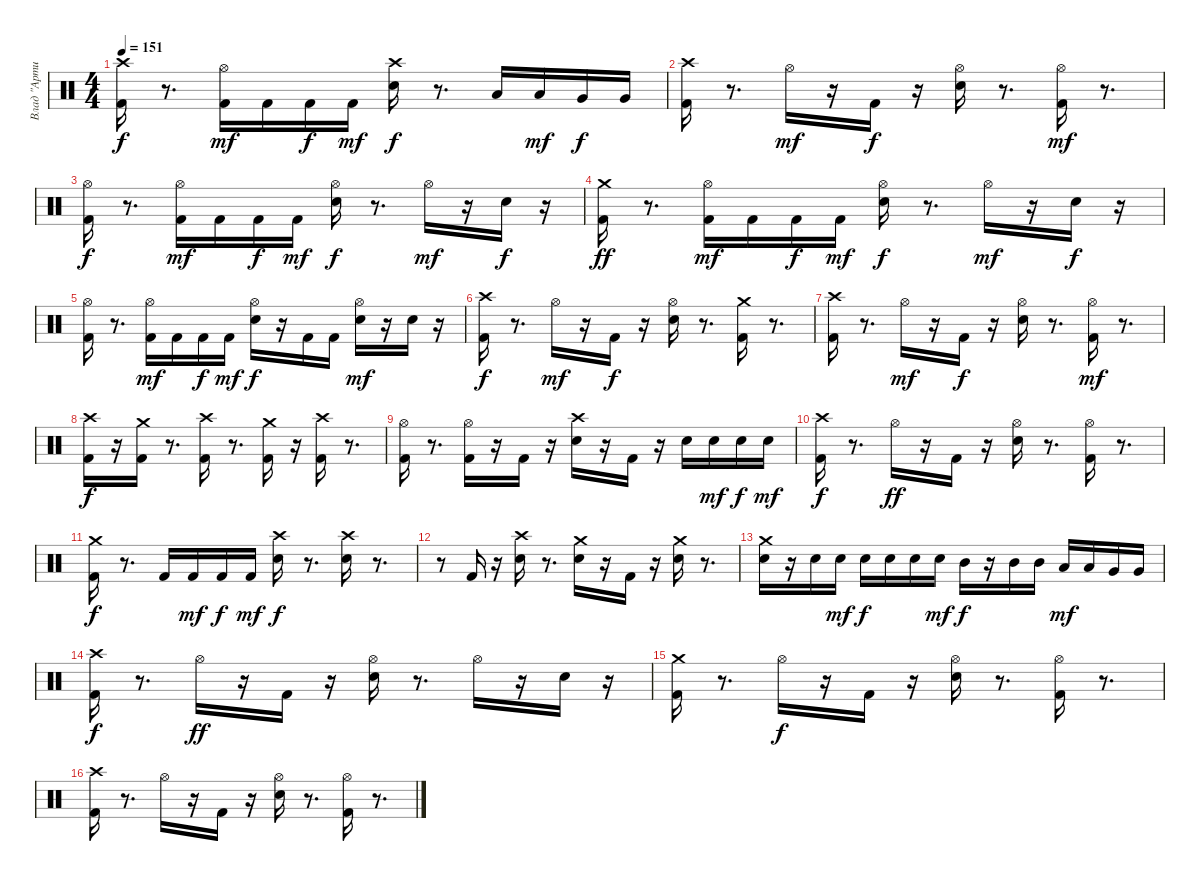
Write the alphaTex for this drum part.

\track ("Влад \"Артист\"" "Влад \"Арти") {instrument percussion}
\staff {score}
\articulation defaults
\ts (4 4)
\tempo 151
\clef neutral
\ks c
("Crash high (hit)" "Kick (hit) 2").16{dy f} r.8{d} ("Kick (hit) 2" "Hi-Hat (open)").16{dy mf} "Kick (hit) 2".16 "Kick (hit) 2".16{dy f} "Kick (hit) 2".16{dy mf} ("Snare (hit) 2" "Crash high (hit)").16{dy f} r.8{d} "Low Tom (hit)".16 "Low Tom (hit)".16{dy mf} "Very Low Tom (hit)".16{dy f} "Very Low Tom (hit)".16 |
("Kick (hit) 2" "Crash high (hit)").16 r.8{d} "Hi-Hat (open)".16{dy mf} r.16 "Kick (hit) 2".16{dy f} r.16 ("Snare (hit) 2" "Hi-Hat (open)").16 r.8{d} ("Hi-Hat (open)" "Kick (hit) 2").16{dy mf} r.8{d} |
("Kick (hit) 2" "Hi-Hat (open)").16{dy f} r.8{d} ("Hi-Hat (open)" "Kick (hit) 2").16{dy mf} "Kick (hit) 2".16 "Kick (hit) 2".16{dy f} "Kick (hit) 2".16{dy mf} ("Hi-Hat (open)" "Snare (hit) 2").16{dy f} r.8{d} "Hi-Hat (open)".16{dy mf} r.16 "Snare (hit) 2".16{dy f} r.16 |
("Crash medium (hit)" "Kick (hit) 2").16{dy ff} r.8{d} ("Hi-Hat (open)" "Kick (hit) 2").16{dy mf} "Kick (hit) 2".16 "Kick (hit) 2".16{dy f} "Kick (hit) 2".16{dy mf} ("Hi-Hat (open)" "Snare (hit) 2").16{dy f} r.8{d} "Hi-Hat (open)".16{dy mf} r.16 "Snare (hit) 2".16{dy f} r.16 |
("Kick (hit) 2" "Hi-Hat (open)").16 r.8{d} ("Hi-Hat (open)" "Kick (hit) 2").16{dy mf} "Kick (hit) 2".16 "Kick (hit) 2".16{dy f} "Kick (hit) 2".16{dy mf} ("Hi-Hat (open)" "Snare (hit) 2").16{dy f} r.16 "Kick (hit) 2".16 "Kick (hit) 2".16 ("Hi-Hat (open)" "Snare (hit) 2").16{dy mf} r.16 "Snare (hit) 2".16 r.16 |
("Kick (hit) 2" "Crash high (hit)").16{dy f} r.8{d} "Hi-Hat (open)".16{dy mf} r.16 "Kick (hit) 2".16{dy f} r.16 ("Snare (hit) 2" "Hi-Hat (open)").16 r.8{d} ("Crash medium (hit)" "Kick (hit) 2").16 r.8{d} |
("Kick (hit) 2" "Crash high (hit)").16 r.8{d} "Hi-Hat (open)".16{dy mf} r.16 "Kick (hit) 2".16{dy f} r.16 ("Snare (hit) 2" "Hi-Hat (open)").16 r.8{d} ("Hi-Hat (open)" "Kick (hit) 2").16{dy mf} r.8{d} |
("Crash high (hit)" "Kick (hit) 2").16{dy f} r.16 ("Crash medium (hit)" "Kick (hit) 2").16 r.8{d} ("Crash high (hit)" "Kick (hit) 2").16 r.8{d} ("Crash medium (hit)" "Kick (hit) 2").16 r.16 ("Crash high (hit)" "Kick (hit) 2").16 r.8{d} |
("Hi-Hat (open)" "Kick (hit) 2").16 r.8{d} ("Kick (hit) 2" "Hi-Hat (open)").16 r.16 "Kick (hit) 2".16 r.16 ("Snare (hit) 2" "Crash high (hit)").16 r.16 "Kick (hit) 2".16 r.16 "Snare (hit) 2".16 "Snare (hit) 2".16{dy mf} "Snare (hit) 2".16{dy f} "Snare (hit) 2".16{dy mf} |
("Kick (hit) 2" "Crash high (hit)").16{dy f} r.8{d} "Hi-Hat (open)".16{dy ff} r.16 "Kick (hit) 2".16 r.16 ("Hi-Hat (open)" "Snare (hit) 2").16 r.8{d} ("Hi-Hat (open)" "Kick (hit) 2").16 r.8{d} |
("Kick (hit) 2" "Crash medium (hit)").16{dy f} r.8{d} "Kick (hit) 2".16 "Kick (hit) 2".16{dy mf} "Kick (hit) 2".16{dy f} "Kick (hit) 2".16{dy mf} ("Crash high (hit)" "Snare (hit) 2").16{dy f} r.8{d} ("Crash high (hit)" "Snare (hit) 2").16 r.8{d} |
r.8 "Kick (hit) 2".16 r.16 ("Crash high (hit)" "Snare (hit) 2").16 r.8{d} ("Snare (hit) 2" "Crash medium (hit)").16 r.16 "Kick (hit) 2".16 r.16 ("Snare (hit) 2" "Crash medium (hit)").16 r.8{d} |
("Crash medium (hit)" "Snare (hit) 2").16 r.16 "Snare (hit) 2".16 "Snare (hit) 2".16{dy mf} "Snare (hit) 2".16{dy f} "Snare (hit) 2".16 "Snare (hit) 2".16 "Snare (hit) 2".16{dy mf} "Mid Tom (hit)".16{dy f} r.16 "Mid Tom (hit)".16 "Mid Tom (hit)".16 "Low Tom (hit)".16{dy mf} "Low Tom (hit)".16 "Very Low Tom (hit)".16 "Very Low Tom (hit)".16 |
("Kick (hit) 2" "Crash high (hit)").16{dy f} r.8{d} "Hi-Hat (open)".16{dy ff} r.16 "Kick (hit) 2".16 r.16 ("Snare (hit) 2" "Hi-Hat (open)").16 r.8{d} "Hi-Hat (open)".16 r.16 "Snare (hit) 2".16 r.16 |
("Crash medium (hit)" "Kick (hit) 2").16 r.8{d} "Hi-Hat (open)".16{dy f} r.16 "Kick (hit) 2".16 r.16 ("Hi-Hat (open)" "Snare (hit) 2").16 r.8{d} ("Hi-Hat (open)" "Kick (hit) 2").16 r.8{d} |
("Crash high (hit)" "Kick (hit) 2").16 r.8{d} "Hi-Hat (open)".16 r.16 "Kick (hit) 2".16 r.16 ("Hi-Hat (open)" "Snare (hit) 2").16 r.8{d} ("Hi-Hat (open)" "Kick (hit) 2").16 r.8{d}
